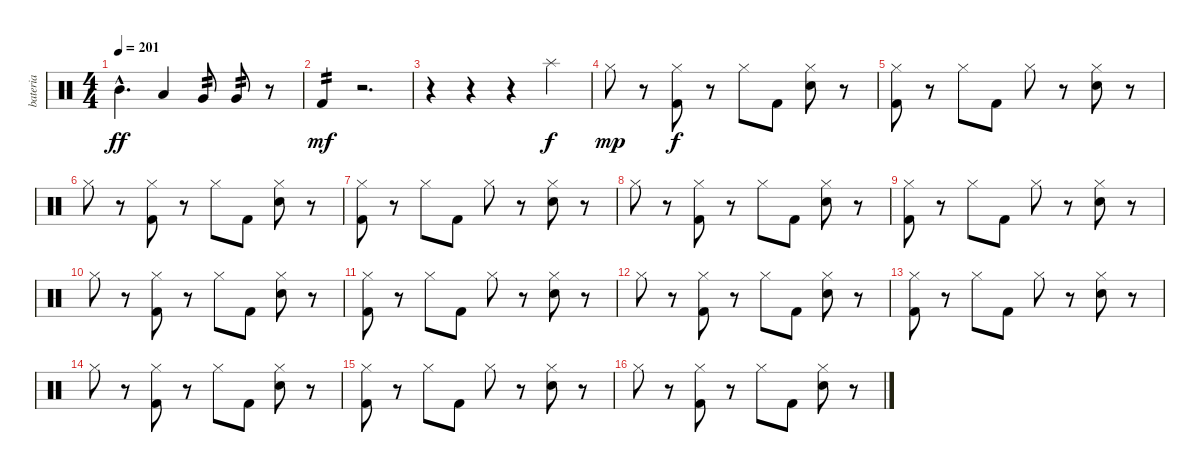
\track ("bateria" "bateria") {instrument percussion}
\staff {score}
\articulation defaults
\ts (4 4)
\tempo 201
\clef neutral
\ks c "Mid Tom (hit)"{hac}.4{d dy ff} "Low Tom (hit)".4 "Very Low Tom (hit)".8{tp 2} "Very Low Tom (hit)".8{tp 2}
r.8 |
"Kick (hit) 2".4{tp 2 dy mf} r.2{d} |
r.4 r.4 r.4 "Splash (hit)".4{dy f} |
"Hi-Hat (closed)".8{dy mp} r.8 ("Hi-Hat (closed)" "Kick (hit) 2").8{dy f} r.8 "Hi-Hat (closed)".8 "Kick (hit) 2".8 ("Hi-Hat (closed)" "Electric Snare (hit)").8 r.8 |
("Hi-Hat (closed)" "Kick (hit) 2").8 r.8 "Hi-Hat (closed)".8 "Kick (hit) 2".8 "Hi-Hat (closed)".8 r.8 ("Hi-Hat (closed)" "Electric Snare (hit)").8 r.8 |
"Hi-Hat (closed)".8 r.8 ("Hi-Hat (closed)" "Kick (hit) 2").8 r.8 "Hi-Hat (closed)".8 "Kick (hit) 2".8 ("Hi-Hat (closed)" "Electric Snare (hit)").8 r.8 |
("Hi-Hat (closed)" "Kick (hit) 2").8 r.8 "Hi-Hat (closed)".8 "Kick (hit) 2".8 "Hi-Hat (closed)".8 r.8 ("Hi-Hat (closed)" "Electric Snare (hit)").8 r.8 |
"Hi-Hat (closed)".8 r.8 ("Hi-Hat (closed)" "Kick (hit) 2").8 r.8 "Hi-Hat (closed)".8 "Kick (hit) 2".8 ("Hi-Hat (closed)" "Electric Snare (hit)").8 r.8 |
("Hi-Hat (closed)" "Kick (hit) 2").8 r.8 "Hi-Hat (closed)".8 "Kick (hit) 2".8 "Hi-Hat (closed)".8 r.8 ("Hi-Hat (closed)" "Electric Snare (hit)").8 r.8 |
"Hi-Hat (closed)".8 r.8 ("Hi-Hat (closed)" "Kick (hit) 2").8 r.8 "Hi-Hat (closed)".8 "Kick (hit) 2".8 ("Hi-Hat (closed)" "Electric Snare (hit)").8 r.8 |
("Hi-Hat (closed)" "Kick (hit) 2").8 r.8 "Hi-Hat (closed)".8 "Kick (hit) 2".8 "Hi-Hat (closed)".8 r.8 ("Hi-Hat (closed)" "Electric Snare (hit)").8 r.8 |
"Hi-Hat (closed)".8 r.8 ("Hi-Hat (closed)" "Kick (hit) 2").8 r.8 "Hi-Hat (closed)".8 "Kick (hit) 2".8 ("Hi-Hat (closed)" "Electric Snare (hit)").8 r.8 |
("Hi-Hat (closed)" "Kick (hit) 2").8 r.8 "Hi-Hat (closed)".8 "Kick (hit) 2".8 "Hi-Hat (closed)".8 r.8 ("Hi-Hat (closed)" "Electric Snare (hit)").8 r.8 |
"Hi-Hat (closed)".8 r.8 ("Hi-Hat (closed)" "Kick (hit) 2").8 r.8 "Hi-Hat (closed)".8 "Kick (hit) 2".8 ("Hi-Hat (closed)" "Electric Snare (hit)").8 r.8 |
("Hi-Hat (closed)" "Kick (hit) 2").8 r.8 "Hi-Hat (closed)".8 "Kick (hit) 2".8 "Hi-Hat (closed)".8 r.8 ("Hi-Hat (closed)" "Electric Snare (hit)").8 r.8 |
"Hi-Hat (closed)".8 r.8 ("Hi-Hat (closed)" "Kick (hit) 2").8 r.8 "Hi-Hat (closed)".8 "Kick (hit) 2".8 ("Hi-Hat (closed)" "Electric Snare (hit)").8 r.8
